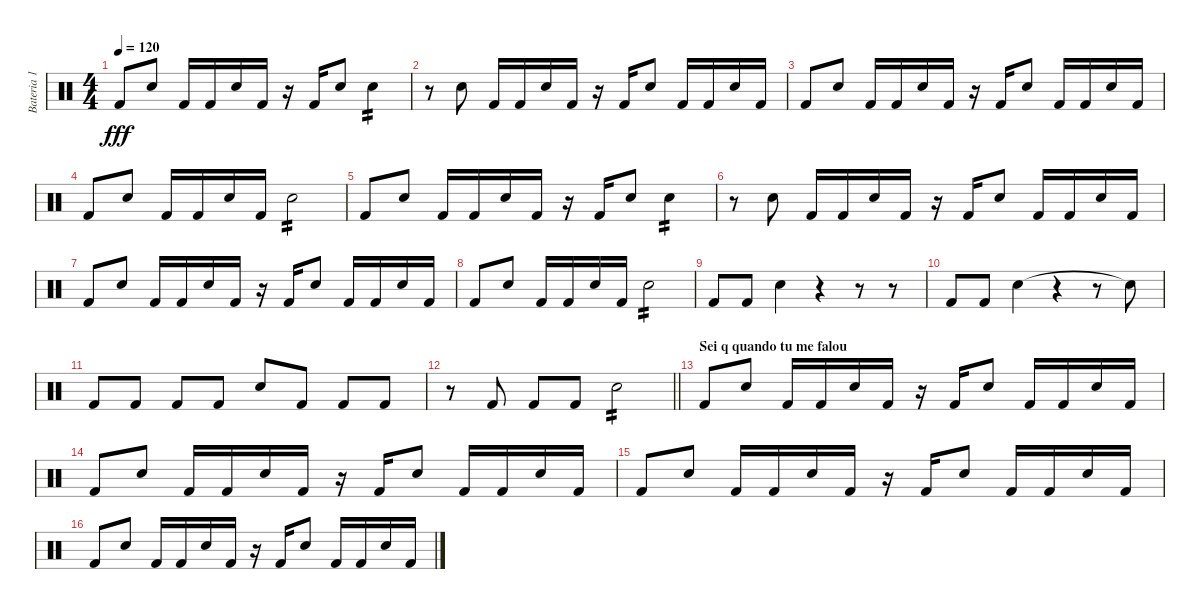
\track ("Bateria 1" "Bateria 1") {instrument percussion}
\staff {score}
\articulation defaults
\ts (4 4)
\tempo 120
\clef neutral
\ks c "Kick (hit) 2".8{dy fff} "Electric Snare (hit)".8 "Kick (hit) 2".16 "Kick (hit) 2".16 "Electric Snare (hit)".16 "Kick (hit) 2".16
r.16 "Kick (hit) 2".16 "Electric Snare (hit)".8 "Electric Snare (hit)".4{tp 2} |
r.8 "Electric Snare (hit)".8 "Kick (hit) 2".16 "Kick (hit) 2".16 "Electric Snare (hit)".16 "Kick (hit) 2".16 r.16 "Kick (hit) 2".16 "Electric Snare (hit)".8 "Kick (hit) 2".16 "Kick (hit) 2".16 "Electric Snare (hit)".16 "Kick (hit) 2".16 |
"Kick (hit) 2".8 "Electric Snare (hit)".8 "Kick (hit) 2".16 "Kick (hit) 2".16 "Electric Snare (hit)".16 "Kick (hit) 2".16 r.16 "Kick (hit) 2".16 "Electric Snare (hit)".8 "Kick (hit) 2".16 "Kick (hit) 2".16 "Electric Snare (hit)".16 "Kick (hit) 2".16 |
"Kick (hit) 2".8 "Electric Snare (hit)".8 "Kick (hit) 2".16 "Kick (hit) 2".16 "Electric Snare (hit)".16 "Kick (hit) 2".16 "Electric Snare (hit)".2{tp 2} |
"Kick (hit) 2".8 "Electric Snare (hit)".8 "Kick (hit) 2".16 "Kick (hit) 2".16 "Electric Snare (hit)".16 "Kick (hit) 2".16 r.16 "Kick (hit) 2".16 "Electric Snare (hit)".8 "Electric Snare (hit)".4{tp 2} |
r.8 "Electric Snare (hit)".8 "Kick (hit) 2".16 "Kick (hit) 2".16 "Electric Snare (hit)".16 "Kick (hit) 2".16 r.16 "Kick (hit) 2".16 "Electric Snare (hit)".8 "Kick (hit) 2".16 "Kick (hit) 2".16 "Electric Snare (hit)".16 "Kick (hit) 2".16 |
"Kick (hit) 2".8 "Electric Snare (hit)".8 "Kick (hit) 2".16 "Kick (hit) 2".16 "Electric Snare (hit)".16 "Kick (hit) 2".16 r.16 "Kick (hit) 2".16 "Electric Snare (hit)".8 "Kick (hit) 2".16 "Kick (hit) 2".16 "Electric Snare (hit)".16 "Kick (hit) 2".16 |
"Kick (hit) 2".8 "Electric Snare (hit)".8 "Kick (hit) 2".16 "Kick (hit) 2".16 "Electric Snare (hit)".16 "Kick (hit) 2".16 "Electric Snare (hit)".2{tp 2} |
"Kick (hit) 2".8 "Kick (hit) 2".8 "Electric Snare (hit)".4 r.4 r.8 r.8 |
"Kick (hit) 2".8 "Kick (hit) 2".8 "Electric Snare (hit)".4 r.4 r.8 "Snare (hit)"{t}.8 |
"Kick (hit) 2".8 "Kick (hit) 2".8 "Kick (hit) 2".8 "Kick (hit) 2".8 "Electric Snare (hit)".8 "Kick (hit) 2".8 "Kick (hit) 2".8 "Kick (hit) 2".8 |
\barLineRight lightlight
r.8 "Kick (hit) 2".8 "Kick (hit) 2".8 "Kick (hit) 2".8 "Electric Snare (hit)".2{tp 2} |
\section ("" "Sei q quando tu me falou")
"Kick (hit) 2".8 "Electric Snare (hit)".8 "Kick (hit) 2".16 "Kick (hit) 2".16 "Electric Snare (hit)".16 "Kick (hit) 2".16 r.16 "Kick (hit) 2".16 "Electric Snare (hit)".8 "Kick (hit) 2".16 "Kick (hit) 2".16 "Electric Snare (hit)".16 "Kick (hit) 2".16 |
"Kick (hit) 2".8 "Electric Snare (hit)".8 "Kick (hit) 2".16 "Kick (hit) 2".16 "Electric Snare (hit)".16 "Kick (hit) 2".16 r.16 "Kick (hit) 2".16 "Electric Snare (hit)".8 "Kick (hit) 2".16 "Kick (hit) 2".16 "Electric Snare (hit)".16 "Kick (hit) 2".16 |
"Kick (hit) 2".8 "Electric Snare (hit)".8 "Kick (hit) 2".16 "Kick (hit) 2".16 "Electric Snare (hit)".16 "Kick (hit) 2".16 r.16 "Kick (hit) 2".16 "Electric Snare (hit)".8 "Kick (hit) 2".16 "Kick (hit) 2".16 "Electric Snare (hit)".16 "Kick (hit) 2".16 |
"Kick (hit) 2".8 "Electric Snare (hit)".8 "Kick (hit) 2".16 "Kick (hit) 2".16 "Electric Snare (hit)".16 "Kick (hit) 2".16 r.16 "Kick (hit) 2".16 "Electric Snare (hit)".8 "Kick (hit) 2".16 "Kick (hit) 2".16 "Electric Snare (hit)".16 "Kick (hit) 2".16
